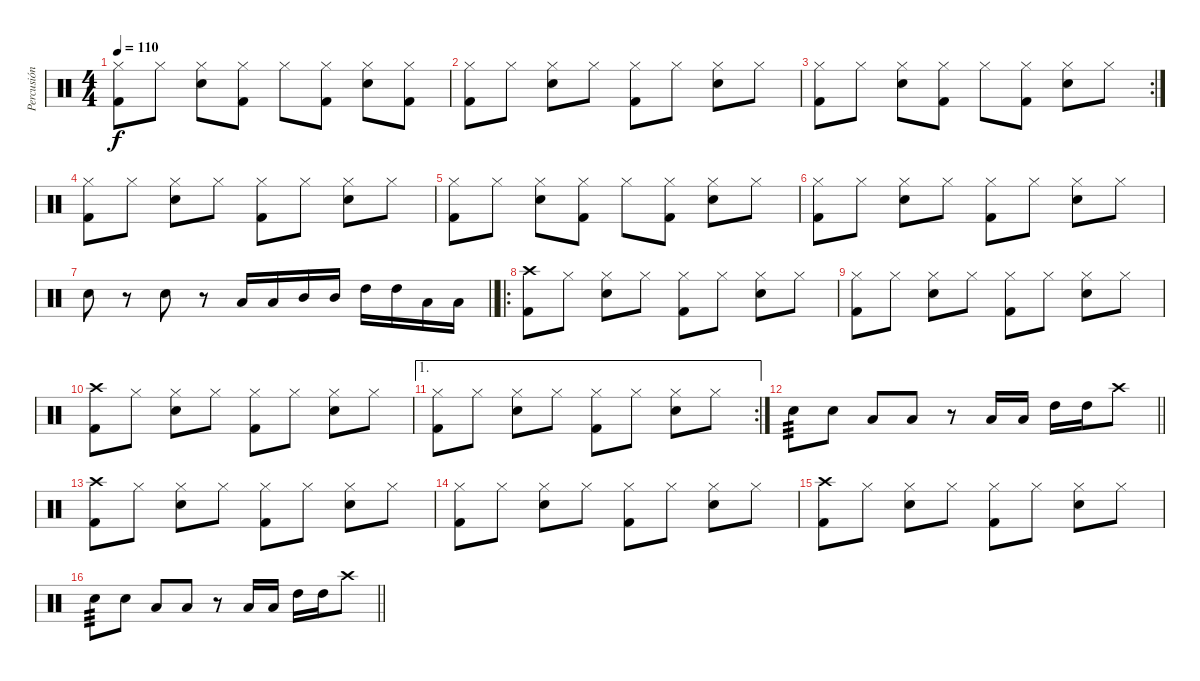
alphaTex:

\track ("Percusión" "Percusión") {instrument percussion}
\staff {score}
\articulation defaults
\ts (4 4)
\tempo 110
\clef neutral
\ks c
("Hi-Hat (closed)" "Kick (hit) 2").8{dy f} "Hi-Hat (closed)".8 ("Hi-Hat (closed)" "Snare (hit) 2").8 ("Hi-Hat (closed)" "Kick (hit) 2").8 "Hi-Hat (closed)".8 ("Hi-Hat (closed)" "Kick (hit) 2").8 ("Hi-Hat (closed)" "Snare (hit) 2").8 ("Hi-Hat (closed)" "Kick (hit) 2").8 |
("Hi-Hat (closed)" "Kick (hit) 2").8 "Hi-Hat (closed)".8 ("Hi-Hat (closed)" "Snare (hit) 2").8 "Hi-Hat (closed)".8 ("Hi-Hat (closed)" "Kick (hit) 2").8 "Hi-Hat (closed)".8 ("Hi-Hat (closed)" "Snare (hit) 2").8 "Hi-Hat (closed)".8 |
\rc 2
("Hi-Hat (closed)" "Kick (hit) 2").8 "Hi-Hat (closed)".8 ("Hi-Hat (closed)" "Snare (hit) 2").8 ("Hi-Hat (closed)" "Kick (hit) 2").8 "Hi-Hat (closed)".8 ("Hi-Hat (closed)" "Kick (hit) 2").8 ("Hi-Hat (closed)" "Snare (hit) 2").8 "Hi-Hat (closed)".8 |
("Hi-Hat (closed)" "Kick (hit) 2").8 "Hi-Hat (closed)".8 ("Hi-Hat (closed)" "Snare (hit) 2").8 "Hi-Hat (closed)".8 ("Hi-Hat (closed)" "Kick (hit) 2").8 "Hi-Hat (closed)".8 ("Hi-Hat (closed)" "Snare (hit) 2").8 "Hi-Hat (closed)".8 |
("Hi-Hat (closed)" "Kick (hit) 2").8 "Hi-Hat (closed)".8 ("Hi-Hat (closed)" "Snare (hit) 2").8 ("Hi-Hat (closed)" "Kick (hit) 2").8 "Hi-Hat (closed)".8 ("Hi-Hat (closed)" "Kick (hit) 2").8 ("Hi-Hat (closed)" "Snare (hit) 2").8 "Hi-Hat (closed)".8 |
("Hi-Hat (closed)" "Kick (hit) 2").8 "Hi-Hat (closed)".8 ("Hi-Hat (closed)" "Snare (hit) 2").8 "Hi-Hat (closed)".8 ("Hi-Hat (closed)" "Kick (hit) 2").8 "Hi-Hat (closed)".8 ("Hi-Hat (closed)" "Snare (hit) 2").8 "Hi-Hat (closed)".8 |
\barLineRight lightlight "Snare (hit) 2".8
r.8 "Snare (hit) 2".8 r.8 "Low Floor Tom (hit)".16 "Low Floor Tom (hit)".16 "Mid Tom (hit)".16 "Mid Tom (hit)".16 "High Tom (hit)".16 "High Tom (hit)".16 "Low Tom (hit)".16 "Low Tom (hit)".16 |
\ro
("Crash high (hit)" "Kick (hit) 2").8 "Hi-Hat (closed)".8 ("Hi-Hat (closed)" "Snare (hit) 2").8 "Hi-Hat (closed)".8 ("Hi-Hat (closed)" "Kick (hit) 2").8 "Hi-Hat (closed)".8 ("Hi-Hat (closed)" "Snare (hit) 2").8 "Hi-Hat (closed)".8 |
("Hi-Hat (closed)" "Kick (hit) 2").8 "Hi-Hat (closed)".8 ("Hi-Hat (closed)" "Snare (hit) 2").8 "Hi-Hat (closed)".8 ("Hi-Hat (closed)" "Kick (hit) 2").8 "Hi-Hat (closed)".8 ("Hi-Hat (closed)" "Snare (hit) 2").8 "Hi-Hat (closed)".8 |
("Crash high (hit)" "Kick (hit) 2").8 "Hi-Hat (closed)".8 ("Hi-Hat (closed)" "Snare (hit) 2").8 "Hi-Hat (closed)".8 ("Hi-Hat (closed)" "Kick (hit) 2").8 "Hi-Hat (closed)".8 ("Hi-Hat (closed)" "Snare (hit) 2").8 "Hi-Hat (closed)".8 |
\ae 1
\rc 2
("Hi-Hat (closed)" "Kick (hit) 2").8 "Hi-Hat (closed)".8 ("Hi-Hat (closed)" "Snare (hit) 2").8 "Hi-Hat (closed)".8 ("Hi-Hat (closed)" "Kick (hit) 2").8 "Hi-Hat (closed)".8 ("Hi-Hat (closed)" "Snare (hit) 2").8 "Hi-Hat (closed)".8 |
\barLineRight lightlight "Snare (hit) 2".8{tp 3} "Snare (hit) 2".8 "Low Tom (hit)".8 "Low Tom (hit)".8
r.8 "Low Tom (hit)".16 "Low Tom (hit)".16 "High Tom (hit)".16 "High Tom (hit)".16 "Crash high (hit)".8 |
("Crash high (hit)" "Kick (hit) 2").8 "Hi-Hat (closed)".8 ("Hi-Hat (closed)" "Snare (hit) 2").8 "Hi-Hat (closed)".8 ("Hi-Hat (closed)" "Kick (hit) 2").8 "Hi-Hat (closed)".8 ("Hi-Hat (closed)" "Snare (hit) 2").8 "Hi-Hat (closed)".8 |
("Hi-Hat (closed)" "Kick (hit) 2").8 "Hi-Hat (closed)".8 ("Hi-Hat (closed)" "Snare (hit) 2").8 "Hi-Hat (closed)".8 ("Hi-Hat (closed)" "Kick (hit) 2").8 "Hi-Hat (closed)".8 ("Hi-Hat (closed)" "Snare (hit) 2").8 "Hi-Hat (closed)".8 |
("Crash high (hit)" "Kick (hit) 2").8 "Hi-Hat (closed)".8 ("Hi-Hat (closed)" "Snare (hit) 2").8 "Hi-Hat (closed)".8 ("Hi-Hat (closed)" "Kick (hit) 2").8 "Hi-Hat (closed)".8 ("Hi-Hat (closed)" "Snare (hit) 2").8 "Hi-Hat (closed)".8 |
\barLineRight lightlight "Snare (hit) 2".8{tp 3} "Snare (hit) 2".8 "Low Tom (hit)".8 "Low Tom (hit)".8
r.8 "Low Tom (hit)".16 "Low Tom (hit)".16 "High Tom (hit)".16 "High Tom (hit)".16 "Crash high (hit)".8
